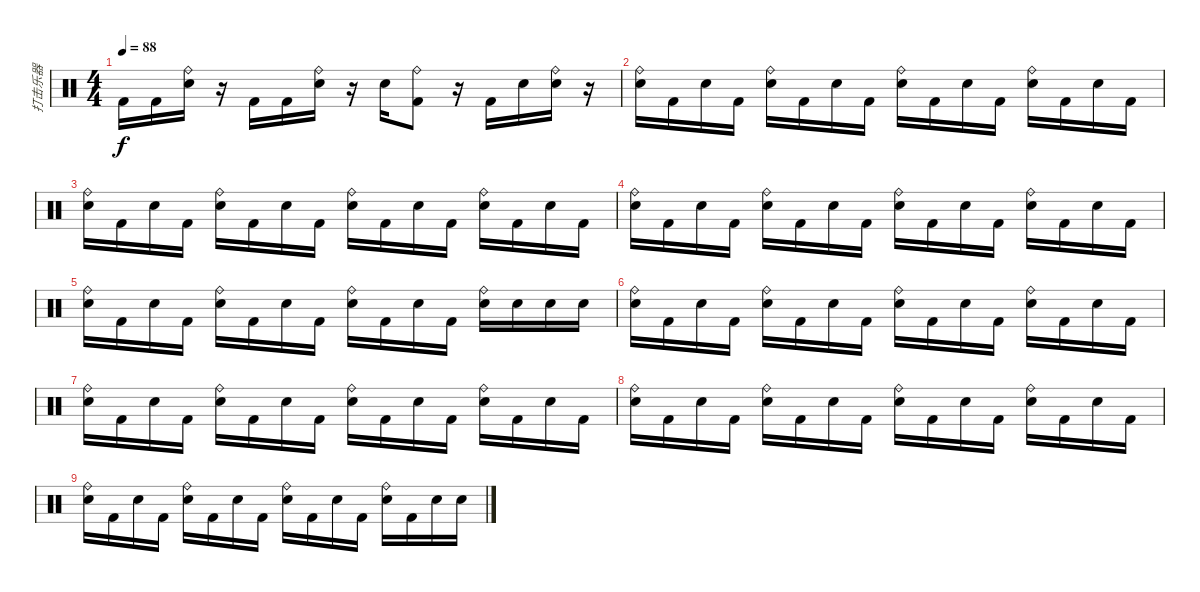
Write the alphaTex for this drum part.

\track ("打击乐器" "打击乐器") {instrument percussion}
\staff {score}
\articulation defaults
\ts (4 4)
\tempo 88
\clef neutral
\ks c "Kick (hit) 2".16{dy f} "Kick (hit) 2".16
("Ride (bell)" "Electric Snare (hit)").16 r.16 "Kick (hit) 2".16 "Kick (hit) 2".16 ("Ride (bell)" "Electric Snare (hit)").16 r.16 "Electric Snare (hit)".16 ("Ride (bell)" "Kick (hit) 2").8 r.16 "Kick (hit) 2".16 "Electric Snare (hit)".16 ("Ride (bell)" "Electric Snare (hit)").16 r.16 |
("Electric Snare (hit)" "Ride (bell)").16 "Kick (hit) 2".16 "Electric Snare (hit)".16 "Kick (hit) 2".16 ("Electric Snare (hit)" "Ride (bell)").16 "Kick (hit) 2".16 "Electric Snare (hit)".16 "Kick (hit) 2".16 ("Electric Snare (hit)" "Ride (bell)").16 "Kick (hit) 2".16 "Electric Snare (hit)".16 "Kick (hit) 2".16 ("Electric Snare (hit)" "Ride (bell)").16 "Kick (hit) 2".16 "Electric Snare (hit)".16 "Kick (hit) 2".16 |
("Electric Snare (hit)" "Ride (bell)").16 "Kick (hit) 2".16 "Electric Snare (hit)".16 "Kick (hit) 2".16 ("Electric Snare (hit)" "Ride (bell)").16 "Kick (hit) 2".16 "Electric Snare (hit)".16 "Kick (hit) 2".16 ("Electric Snare (hit)" "Ride (bell)").16 "Kick (hit) 2".16 "Electric Snare (hit)".16 "Kick (hit) 2".16 ("Electric Snare (hit)" "Ride (bell)").16 "Kick (hit) 2".16 "Electric Snare (hit)".16 "Kick (hit) 2".16 |
("Electric Snare (hit)" "Ride (bell)").16 "Kick (hit) 2".16 "Electric Snare (hit)".16 "Kick (hit) 2".16 ("Electric Snare (hit)" "Ride (bell)").16 "Kick (hit) 2".16 "Electric Snare (hit)".16 "Kick (hit) 2".16 ("Electric Snare (hit)" "Ride (bell)").16 "Kick (hit) 2".16 "Electric Snare (hit)".16 "Kick (hit) 2".16 ("Electric Snare (hit)" "Ride (bell)").16 "Kick (hit) 2".16 "Electric Snare (hit)".16 "Kick (hit) 2".16 |
("Electric Snare (hit)" "Ride (bell)").16 "Kick (hit) 2".16 "Electric Snare (hit)".16 "Kick (hit) 2".16 ("Electric Snare (hit)" "Ride (bell)").16 "Kick (hit) 2".16 "Electric Snare (hit)".16 "Kick (hit) 2".16 ("Electric Snare (hit)" "Ride (bell)").16 "Kick (hit) 2".16 "Electric Snare (hit)".16 "Kick (hit) 2".16 ("Electric Snare (hit)" "Ride (bell)").16 "Electric Snare (hit)".16 "Electric Snare (hit)".16 "Electric Snare (hit)".16 |
("Electric Snare (hit)" "Ride (bell)").16 "Kick (hit) 2".16 "Electric Snare (hit)".16 "Kick (hit) 2".16 ("Electric Snare (hit)" "Ride (bell)").16 "Kick (hit) 2".16 "Electric Snare (hit)".16 "Kick (hit) 2".16 ("Electric Snare (hit)" "Ride (bell)").16 "Kick (hit) 2".16 "Electric Snare (hit)".16 "Kick (hit) 2".16 ("Electric Snare (hit)" "Ride (bell)").16 "Kick (hit) 2".16 "Electric Snare (hit)".16 "Kick (hit) 2".16 |
("Electric Snare (hit)" "Ride (bell)").16 "Kick (hit) 2".16 "Electric Snare (hit)".16 "Kick (hit) 2".16 ("Electric Snare (hit)" "Ride (bell)").16 "Kick (hit) 2".16 "Electric Snare (hit)".16 "Kick (hit) 2".16 ("Electric Snare (hit)" "Ride (bell)").16 "Kick (hit) 2".16 "Electric Snare (hit)".16 "Kick (hit) 2".16 ("Electric Snare (hit)" "Ride (bell)").16 "Kick (hit) 2".16 "Electric Snare (hit)".16 "Kick (hit) 2".16 |
("Electric Snare (hit)" "Ride (bell)").16 "Kick (hit) 2".16 "Electric Snare (hit)".16 "Kick (hit) 2".16 ("Electric Snare (hit)" "Ride (bell)").16 "Kick (hit) 2".16 "Electric Snare (hit)".16 "Kick (hit) 2".16 ("Electric Snare (hit)" "Ride (bell)").16 "Kick (hit) 2".16 "Electric Snare (hit)".16 "Kick (hit) 2".16 ("Electric Snare (hit)" "Ride (bell)").16 "Kick (hit) 2".16 "Electric Snare (hit)".16 "Kick (hit) 2".16 |
("Electric Snare (hit)" "Ride (bell)").16 "Kick (hit) 2".16 "Electric Snare (hit)".16 "Kick (hit) 2".16 ("Electric Snare (hit)" "Ride (bell)").16 "Kick (hit) 2".16 "Electric Snare (hit)".16 "Kick (hit) 2".16 ("Electric Snare (hit)" "Ride (bell)").16 "Kick (hit) 2".16 "Electric Snare (hit)".16 "Kick (hit) 2".16 ("Electric Snare (hit)" "Ride (bell)").16 "Kick (hit) 2".16 "Electric Snare (hit)".16 "Electric Snare (hit)".16
